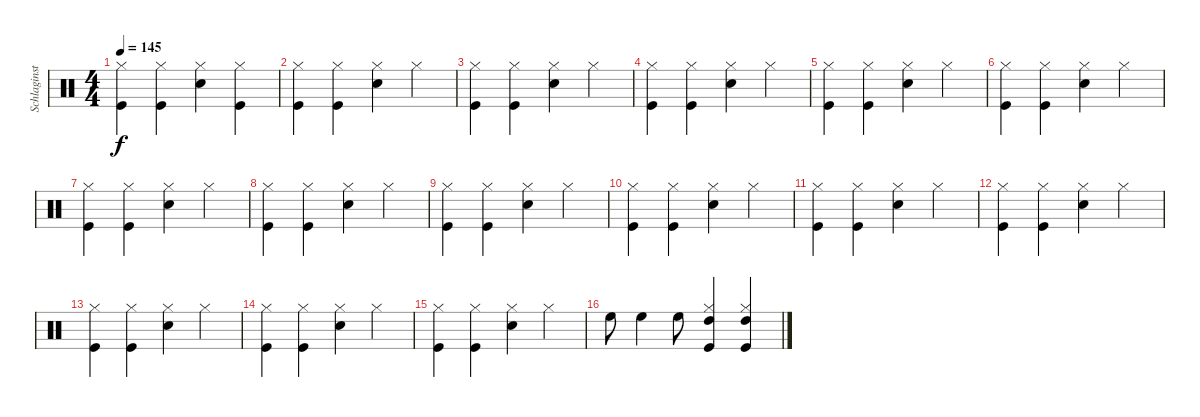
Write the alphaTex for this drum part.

\track ("Schlaginstrumente - Auswahl" "Schlaginst") {instrument percussion}
\staff {score}
\articulation defaults
\ts (4 4)
\tempo 145
\clef neutral
\ks c
("Kick (hit)" "Hi-Hat (closed)").4{dy f} ("Kick (hit)" "Hi-Hat (closed)").4 ("Snare (hit) 2" "Hi-Hat (closed)").4 ("Hi-Hat (closed)" "Kick (hit)").4 |
("Kick (hit)" "Hi-Hat (closed)").4 ("Kick (hit)" "Hi-Hat (closed)").4 ("Snare (hit) 2" "Hi-Hat (closed)").4 "Hi-Hat (closed)".4 |
("Kick (hit)" "Hi-Hat (closed)").4 ("Kick (hit)" "Hi-Hat (closed)").4 ("Snare (hit) 2" "Hi-Hat (closed)").4 "Hi-Hat (closed)".4 |
("Kick (hit)" "Hi-Hat (closed)").4 ("Kick (hit)" "Hi-Hat (closed)").4 ("Snare (hit) 2" "Hi-Hat (closed)").4 "Hi-Hat (closed)".4 |
("Kick (hit)" "Hi-Hat (closed)").4 ("Kick (hit)" "Hi-Hat (closed)").4 ("Snare (hit) 2" "Hi-Hat (closed)").4 "Hi-Hat (closed)".4 |
("Kick (hit)" "Hi-Hat (closed)").4 ("Kick (hit)" "Hi-Hat (closed)").4 ("Snare (hit) 2" "Hi-Hat (closed)").4 "Hi-Hat (closed)".4 |
("Kick (hit)" "Hi-Hat (closed)").4 ("Kick (hit)" "Hi-Hat (closed)").4 ("Snare (hit) 2" "Hi-Hat (closed)").4 "Hi-Hat (closed)".4 |
("Kick (hit)" "Hi-Hat (closed)").4 ("Kick (hit)" "Hi-Hat (closed)").4 ("Snare (hit) 2" "Hi-Hat (closed)").4 "Hi-Hat (closed)".4 |
("Kick (hit)" "Hi-Hat (closed)").4 ("Kick (hit)" "Hi-Hat (closed)").4 ("Snare (hit) 2" "Hi-Hat (closed)").4 "Hi-Hat (closed)".4 |
("Kick (hit)" "Hi-Hat (closed)").4 ("Kick (hit)" "Hi-Hat (closed)").4 ("Snare (hit) 2" "Hi-Hat (closed)").4 "Hi-Hat (closed)".4 |
("Kick (hit)" "Hi-Hat (closed)").4 ("Kick (hit)" "Hi-Hat (closed)").4 ("Snare (hit) 2" "Hi-Hat (closed)").4 "Hi-Hat (closed)".4 |
("Kick (hit)" "Hi-Hat (closed)").4 ("Kick (hit)" "Hi-Hat (closed)").4 ("Snare (hit) 2" "Hi-Hat (closed)").4 "Hi-Hat (closed)".4 |
("Kick (hit)" "Hi-Hat (closed)").4 ("Kick (hit)" "Hi-Hat (closed)").4 ("Snare (hit) 2" "Hi-Hat (closed)").4 "Hi-Hat (closed)".4 |
("Kick (hit)" "Hi-Hat (closed)").4 ("Kick (hit)" "Hi-Hat (closed)").4 ("Snare (hit) 2" "Hi-Hat (closed)").4 "Hi-Hat (closed)".4 |
("Kick (hit)" "Hi-Hat (closed)").4 ("Kick (hit)" "Hi-Hat (closed)").4 ("Snare (hit) 2" "Hi-Hat (closed)").4 "Hi-Hat (closed)".4 |
"High Floor Tom (hit)".8 "High Floor Tom (hit)".4 "High Floor Tom (hit)".8 ("High Tom (hit)" "Kick (hit)" "Hi-Hat (closed)").4 ("High Tom (hit)" "Kick (hit)" "Hi-Hat (closed)").4
